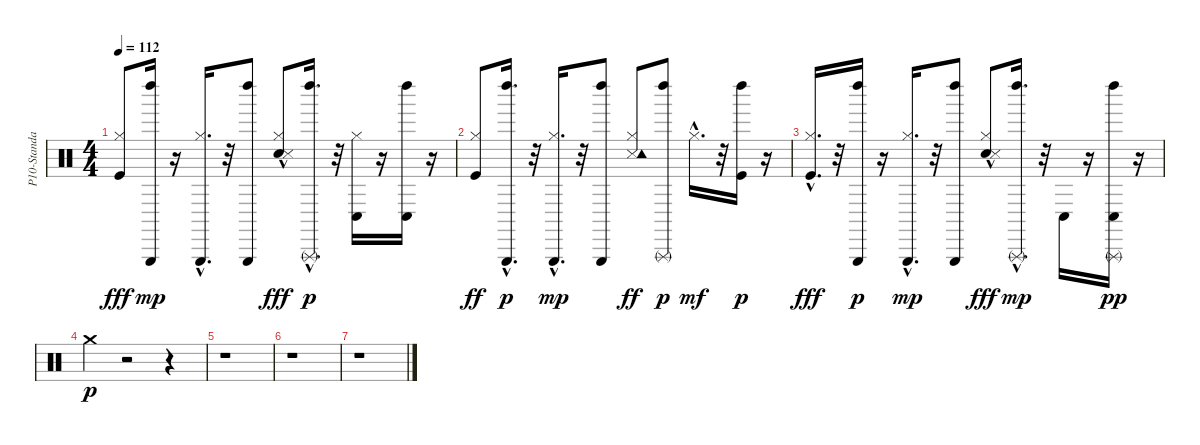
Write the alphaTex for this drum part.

\track ("P10-Standard Kit" "P10-Standa") {instrument percussion}
\staff {score}
\articulation defaults
\ts (4 4)
\tempo 112
\clef neutral
\ks c
("Kick (hit)" "Hi-Hat (closed)").8{dy fff} ("Left Maraca (hit)" "Triangle (hit)").16{dy mp} r.16 ("Hi-Hat (closed)" "Triangle (hit)"{hac}).16{d} r.32 ("Left Maraca (hit)" "Triangle (hit)").8 ("Snare (hit)"{hac} "Hi-Hat (closed)" "Snare (side stick) 3").8{dy fff} ("Left Maraca (hit)" "Triangle (rnute)"{hac}).16{d dy p} r.32 ("Hi-Hat (closed)" "Conga low (hit)").16 r.16 ("Left Maraca (hit)" "Conga low (hit)").16 r.16 |
("Kick (hit)" "Hi-Hat (closed)").8{dy ff} ("Triangle (hit)"{hac} "Left Maraca (hit)").16{d dy p} r.32 ("Hi-Hat (closed)" "Triangle (hit)"{hac}).16{d dy mp} r.32 ("Left Maraca (hit)" "Triangle (hit)").8 ("Snare (side stick) 3" "Hi-Hat (closed)" "Tambourine (hit)").8{dy ff} ("Triangle (rnute)" "Left Maraca (hit)").8{dy p} "Hi-Hat (closed)"{hac}.16{d dy mf} r.32 ("Kick (hit)" "Left Maraca (hit)").16{dy p} r.16 |
("Kick (hit)"{hac} "Hi-Hat (closed)").16{d dy fff} r.32 ("Triangle (hit)" "Left Maraca (hit)").16{dy p} r.16 ("Hi-Hat (closed)" "Triangle (hit)"{hac}).16{d dy mp} r.32 ("Triangle (hit)" "Left Maraca (hit)").8 ("Snare (hit)" "Hi-Hat (closed)" "Snare (side stick) 3"{hac}).8{dy fff} ("Triangle (rnute)"{hac} "Left Maraca (hit)").16{d dy mp} r.32 "Conga low (hit)".16 r.16 ("Triangle (rnute)" "Left Maraca (hit)" "Conga low (hit)").16{dy pp} r.16 |
"Crash medium (hit)".4{dy p} r.2 r.4 |
r.1 |
r.1 |
r.1
